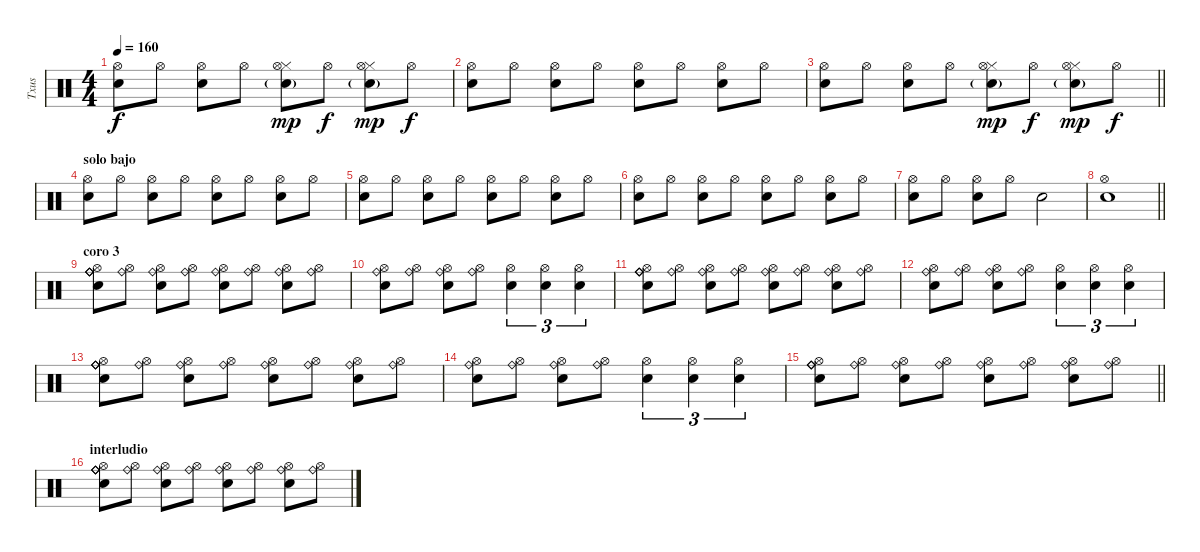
\track ("Txus" "Txus") {instrument percussion}
\staff {score}
\articulation defaults
\ts (4 4)
\tempo 160
\clef neutral
\ks c
("Snare (hit) 2" "Hi-Hat (open)").8{dy f} "Hi-Hat (open)".8 ("Snare (hit) 2" "Hi-Hat (open)").8 "Hi-Hat (open)".8 ("Snare (hit) 2"{g} "Hi-Hat (closed)" "Hi-Hat (open)").8{dy mp} "Hi-Hat (open)".8{dy f} ("Snare (hit) 2"{g} "Hi-Hat (closed)" "Hi-Hat (open)").8{dy mp} "Hi-Hat (open)".8{dy f} |
("Snare (hit) 2" "Hi-Hat (open)").8 "Hi-Hat (open)".8 ("Snare (hit) 2" "Hi-Hat (open)").8 "Hi-Hat (open)".8 ("Snare (hit) 2" "Hi-Hat (open)").8 "Hi-Hat (open)".8 ("Snare (hit) 2" "Hi-Hat (open)").8 "Hi-Hat (open)".8 |
\barLineRight lightlight
("Snare (hit) 2" "Hi-Hat (open)").8 "Hi-Hat (open)".8 ("Snare (hit) 2" "Hi-Hat (open)").8 "Hi-Hat (open)".8 ("Snare (hit) 2"{g} "Hi-Hat (closed)" "Hi-Hat (open)").8{dy mp} "Hi-Hat (open)".8{dy f} ("Snare (hit) 2"{g} "Hi-Hat (closed)" "Hi-Hat (open)").8{dy mp} "Hi-Hat (open)".8{dy f} |
\section ("" "solo bajo")
("Snare (hit) 2" "Hi-Hat (open)").8 "Hi-Hat (open)".8 ("Snare (hit) 2" "Hi-Hat (open)").8 "Hi-Hat (open)".8 ("Snare (hit) 2" "Hi-Hat (open)").8 "Hi-Hat (open)".8 ("Snare (hit) 2" "Hi-Hat (open)").8 "Hi-Hat (open)".8 |
("Snare (hit) 2" "Hi-Hat (open)").8 "Hi-Hat (open)".8 ("Snare (hit) 2" "Hi-Hat (open)").8 "Hi-Hat (open)".8 ("Snare (hit) 2" "Hi-Hat (open)").8 "Hi-Hat (open)".8 ("Snare (hit) 2" "Hi-Hat (open)").8 "Hi-Hat (open)".8 |
("Snare (hit) 2" "Hi-Hat (open)").8 "Hi-Hat (open)".8 ("Snare (hit) 2" "Hi-Hat (open)").8 "Hi-Hat (open)".8 ("Snare (hit) 2" "Hi-Hat (open)").8 "Hi-Hat (open)".8 ("Snare (hit) 2" "Hi-Hat (open)").8 "Hi-Hat (open)".8 |
("Snare (hit) 2" "Hi-Hat (open)").8 "Hi-Hat (open)".8 ("Snare (hit) 2" "Hi-Hat (open)").8 "Hi-Hat (open)".8 "Snare (hit) 2".2 |
\barLineRight lightlight
("Snare (hit) 2" "Hi-Hat (open)").1 |
\section ("" "coro 3")
("Snare (hit) 2" "Hi-Hat (open)" "Ride (bell)" "Ride (bell)" "Ride (bell)").8 ("Hi-Hat (open)" "Ride (bell)").8 ("Snare (hit) 2" "Hi-Hat (open)" "Ride (bell)").8 ("Hi-Hat (open)" "Ride (bell)").8 ("Snare (hit) 2" "Hi-Hat (open)" "Ride (bell)").8 ("Hi-Hat (open)" "Ride (bell)").8 ("Snare (hit) 2" "Hi-Hat (open)" "Ride (bell)").8 ("Hi-Hat (open)" "Ride (bell)").8 |
("Snare (hit) 2" "Ride (bell)" "Hi-Hat (open)").8 ("Ride (bell)" "Hi-Hat (open)").8 ("Snare (hit) 2" "Ride (bell)" "Hi-Hat (open)").8 ("Ride (bell)" "Hi-Hat (open)").8 ("Snare (hit) 2" "Hi-Hat (open)").4{tu (3 2)} ("Snare (hit) 2" "Hi-Hat (open)").4{tu (3 2)} ("Snare (hit) 2" "Hi-Hat (open)").4{tu (3 2)} |
("Snare (hit) 2" "Hi-Hat (open)" "Ride (bell)" "Ride (bell)" "Ride (bell)").8 ("Hi-Hat (open)" "Ride (bell)").8 ("Snare (hit) 2" "Hi-Hat (open)" "Ride (bell)").8 ("Hi-Hat (open)" "Ride (bell)").8 ("Snare (hit) 2" "Hi-Hat (open)" "Ride (bell)").8 ("Hi-Hat (open)" "Ride (bell)").8 ("Snare (hit) 2" "Hi-Hat (open)" "Ride (bell)").8 ("Hi-Hat (open)" "Ride (bell)").8 |
("Snare (hit) 2" "Ride (bell)" "Hi-Hat (open)").8 ("Ride (bell)" "Hi-Hat (open)").8 ("Snare (hit) 2" "Ride (bell)" "Hi-Hat (open)").8 ("Ride (bell)" "Hi-Hat (open)").8 ("Snare (hit) 2" "Hi-Hat (open)").4{tu (3 2)} ("Snare (hit) 2" "Hi-Hat (open)").4{tu (3 2)} ("Snare (hit) 2" "Hi-Hat (open)").4{tu (3 2)} |
("Snare (hit) 2" "Hi-Hat (open)" "Ride (bell)" "Ride (bell)" "Ride (bell)").8 ("Hi-Hat (open)" "Ride (bell)").8 ("Snare (hit) 2" "Hi-Hat (open)" "Ride (bell)").8 ("Hi-Hat (open)" "Ride (bell)").8 ("Snare (hit) 2" "Hi-Hat (open)" "Ride (bell)").8 ("Hi-Hat (open)" "Ride (bell)").8 ("Snare (hit) 2" "Hi-Hat (open)" "Ride (bell)").8 ("Hi-Hat (open)" "Ride (bell)").8 |
("Snare (hit) 2" "Ride (bell)" "Hi-Hat (open)").8 ("Ride (bell)" "Hi-Hat (open)").8 ("Snare (hit) 2" "Ride (bell)" "Hi-Hat (open)").8 ("Ride (bell)" "Hi-Hat (open)").8 ("Snare (hit) 2" "Hi-Hat (open)").4{tu (3 2)} ("Snare (hit) 2" "Hi-Hat (open)").4{tu (3 2)} ("Snare (hit) 2" "Hi-Hat (open)").4{tu (3 2)} |
\barLineRight lightlight
("Snare (hit) 2" "Hi-Hat (open)" "Ride (bell)" "Ride (bell)" "Ride (bell)").8 ("Hi-Hat (open)" "Ride (bell)").8 ("Snare (hit) 2" "Hi-Hat (open)" "Ride (bell)").8 ("Hi-Hat (open)" "Ride (bell)").8 ("Snare (hit) 2" "Hi-Hat (open)" "Ride (bell)").8 ("Hi-Hat (open)" "Ride (bell)").8 ("Snare (hit) 2" "Hi-Hat (open)" "Ride (bell)").8 ("Hi-Hat (open)" "Ride (bell)").8 |
\section ("" "interludio")
("Snare (hit) 2" "Hi-Hat (open)" "Ride (bell)" "Ride (bell)" "Ride (bell)").8 ("Hi-Hat (open)" "Ride (bell)").8 ("Snare (hit) 2" "Hi-Hat (open)" "Ride (bell)").8 ("Hi-Hat (open)" "Ride (bell)").8 ("Snare (hit) 2" "Hi-Hat (open)" "Ride (bell)").8 ("Hi-Hat (open)" "Ride (bell)").8 ("Snare (hit) 2" "Hi-Hat (open)" "Ride (bell)").8 ("Hi-Hat (open)" "Ride (bell)").8
